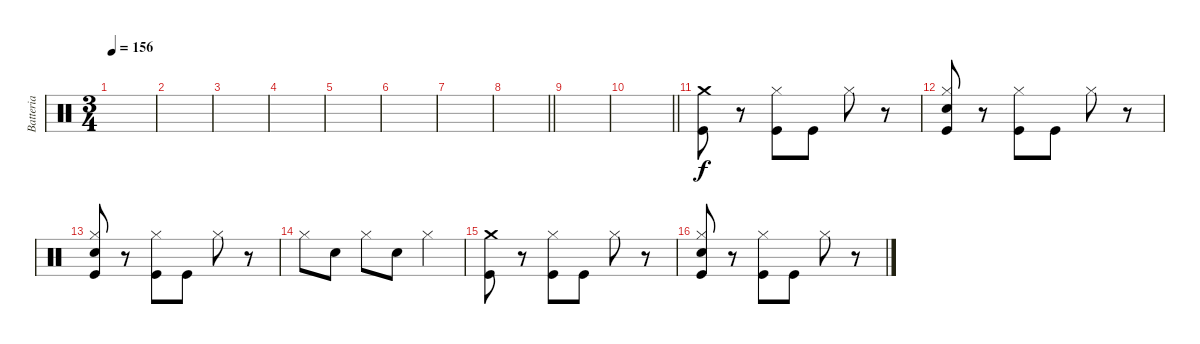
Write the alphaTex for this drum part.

\track ("Batteria" "Batteria") {instrument percussion}
\staff {score}
\articulation defaults
\ts (3 4)
\section ("" "")
\tempo 156
\clef neutral
\ks c
|
|
|
|
|
|
|
\barLineRight lightlight
|
|
\barLineRight lightlight
|
\section ("" "")
("Crash medium (hit)" "Kick (hit)").8 r.8 ("Hi-Hat (closed)" "Kick (hit)").8 "Kick (hit)".8 "Hi-Hat (closed)".8 r.8 |
("Hi-Hat (closed)" "Electric Snare (hit)" "Kick (hit)").8 r.8 ("Hi-Hat (closed)" "Kick (hit)").8 "Kick (hit)".8 "Hi-Hat (closed)".8 r.8 |
("Hi-Hat (closed)" "Electric Snare (hit)" "Kick (hit)").8 r.8 ("Hi-Hat (closed)" "Kick (hit)").8 "Kick (hit)".8 "Hi-Hat (closed)".8 r.8 |
"Hi-Hat (closed)".8 "Electric Snare (hit)".8 "Hi-Hat (closed)".8 "Electric Snare (hit)".8 "Hi-Hat (closed)".4 |
("Crash medium (hit)" "Kick (hit)").8 r.8 ("Hi-Hat (closed)" "Kick (hit)").8 "Kick (hit)".8 "Hi-Hat (closed)".8 r.8 |
("Hi-Hat (closed)" "Electric Snare (hit)" "Kick (hit)").8 r.8 ("Hi-Hat (closed)" "Kick (hit)").8 "Kick (hit)".8 "Hi-Hat (closed)".8 r.8
